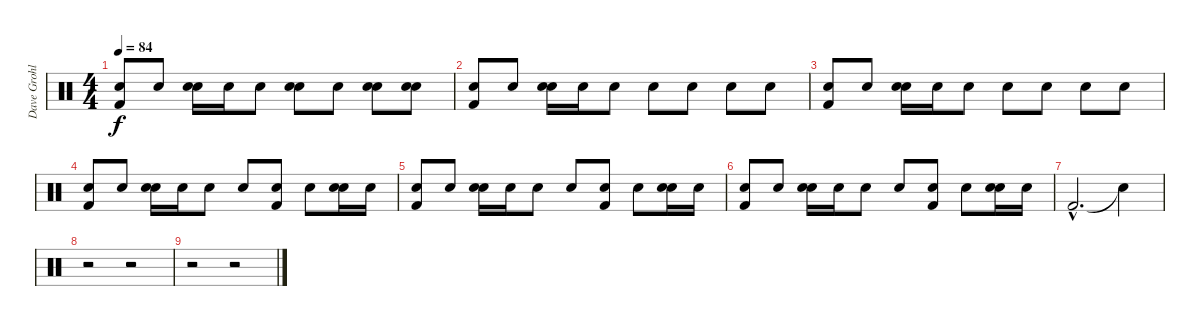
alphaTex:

\track ("Dave Grohl (Drums)" "Dave Grohl") {instrument percussion}
\staff {score}
\articulation defaults
\ts (4 4)
\tempo 84
\clef neutral
\ks c
("Snare (hit)"{x} "Kick (hit) 2").8{dy f} "Snare (hit)"{x}.8 ("Snare (hit)"{x} "Snare (hit) 2").16 "Snare (hit) 2".16 "Snare (hit)"{x}.8 ("Snare (hit)"{x} "Snare (hit) 2").8 "Snare (hit)"{x}.8 ("Snare (hit)"{x} "Snare (hit) 2").8 ("Snare (hit)"{x} "Snare (hit) 2").8 |
("Snare (hit)"{x} "Kick (hit) 2").8 "Snare (hit)"{x}.8 ("Snare (hit)"{x} "Snare (hit) 2").16 "Snare (hit) 2".16 "Snare (hit)"{x}.8 "Snare (hit)"{x}.8 "Snare (hit)"{x}.8 "Snare (hit)"{x}.8 "Snare (hit)"{x}.8 |
("Snare (hit)"{x} "Kick (hit) 2").8 "Snare (hit)"{x}.8 ("Snare (hit)"{x} "Snare (hit) 2").16 "Snare (hit) 2".16 "Snare (hit)"{x}.8 "Snare (hit)"{x}.8 "Snare (hit)"{x}.8 "Snare (hit)"{x}.8 "Snare (hit)"{x}.8 |
("Snare (hit)"{x} "Kick (hit) 2").8 "Snare (hit)"{x}.8 ("Snare (hit)"{x} "Snare (hit) 2").16 "Snare (hit) 2".16 "Snare (hit)"{x}.8 "Snare (hit)"{x}.8 ("Snare (hit)"{x} "Kick (hit) 2").8 "Snare (hit)"{x}.8 ("Snare (hit)"{x} "Snare (hit) 2").16 "Snare (hit) 2".16 |
("Snare (hit)"{x} "Kick (hit) 2").8 "Snare (hit)"{x}.8 ("Snare (hit)"{x} "Snare (hit) 2").16 "Snare (hit) 2".16 "Snare (hit)"{x}.8 "Snare (hit)"{x}.8 ("Snare (hit)"{x} "Kick (hit) 2").8 "Snare (hit)"{x}.8 ("Snare (hit)"{x} "Snare (hit) 2").16 "Snare (hit) 2".16 |
("Snare (hit)"{x} "Kick (hit) 2").8 "Snare (hit)"{x}.8 ("Snare (hit)"{x} "Snare (hit) 2").16 "Snare (hit) 2".16 "Snare (hit)"{x}.8 "Snare (hit)"{x}.8 ("Snare (hit)"{x} "Kick (hit) 2").8 "Snare (hit)"{x}.8 ("Snare (hit)"{x} "Snare (hit) 2").16 "Snare (hit) 2".16 |
"Kick (hit) 2"{hac}.2{d} "Snare (hit)"{t}.4 |
r.2 r.2 |
r.2 r.2
